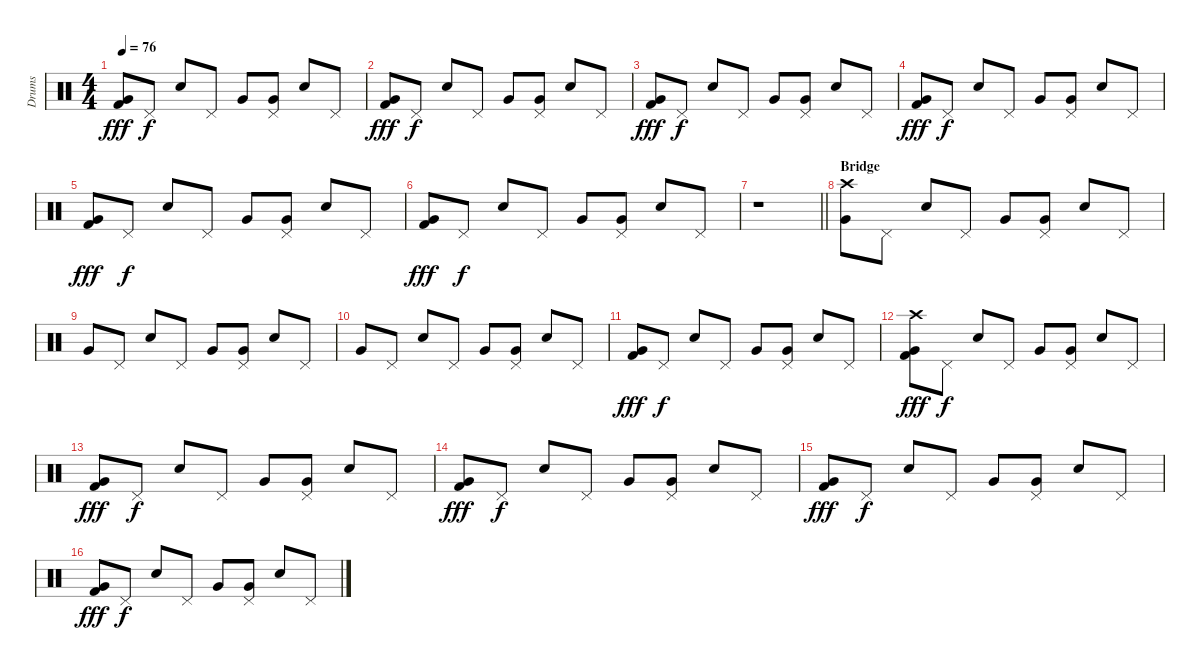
\track ("Drums" "Drums") {instrument percussion}
\staff {score}
\articulation defaults
\ts (4 4)
\tempo 76
\clef neutral
\ks c
("Kick (hit) 2" "Very Low Tom (hit)").8{dy fff} "Pedal Hi-Hat (hit)".8{dy f} "Electric Snare (hit)".8 "Pedal Hi-Hat (hit)".8 "Very Low Tom (hit)".8 ("Very Low Tom (hit)" "Pedal Hi-Hat (hit)").8 "Electric Snare (hit)".8 "Pedal Hi-Hat (hit)".8 |
("Kick (hit) 2" "Very Low Tom (hit)").8{dy fff} "Pedal Hi-Hat (hit)".8{dy f} "Electric Snare (hit)".8 "Pedal Hi-Hat (hit)".8 "Very Low Tom (hit)".8 ("Very Low Tom (hit)" "Pedal Hi-Hat (hit)").8 "Electric Snare (hit)".8 "Pedal Hi-Hat (hit)".8 |
("Kick (hit) 2" "Very Low Tom (hit)").8{dy fff} "Pedal Hi-Hat (hit)".8{dy f} "Electric Snare (hit)".8 "Pedal Hi-Hat (hit)".8 "Very Low Tom (hit)".8 ("Very Low Tom (hit)" "Pedal Hi-Hat (hit)").8 "Electric Snare (hit)".8 "Pedal Hi-Hat (hit)".8 |
("Kick (hit) 2" "Very Low Tom (hit)").8{dy fff} "Pedal Hi-Hat (hit)".8{dy f} "Electric Snare (hit)".8 "Pedal Hi-Hat (hit)".8 "Very Low Tom (hit)".8 ("Very Low Tom (hit)" "Pedal Hi-Hat (hit)").8 "Electric Snare (hit)".8 "Pedal Hi-Hat (hit)".8 |
("Kick (hit) 2" "Very Low Tom (hit)").8{dy fff} "Pedal Hi-Hat (hit)".8{dy f} "Electric Snare (hit)".8 "Pedal Hi-Hat (hit)".8 "Very Low Tom (hit)".8 ("Very Low Tom (hit)" "Pedal Hi-Hat (hit)").8 "Electric Snare (hit)".8 "Pedal Hi-Hat (hit)".8 |
("Kick (hit) 2" "Very Low Tom (hit)").8{dy fff} "Pedal Hi-Hat (hit)".8{dy f} "Electric Snare (hit)".8 "Pedal Hi-Hat (hit)".8 "Very Low Tom (hit)".8 ("Very Low Tom (hit)" "Pedal Hi-Hat (hit)").8 "Electric Snare (hit)".8 "Pedal Hi-Hat (hit)".8 |
\barLineRight lightlight
r.1 |
\section ("" "Bridge")
("Crash high (hit)" "Very Low Tom (hit)").8 "Pedal Hi-Hat (hit)".8 "Electric Snare (hit)".8 "Pedal Hi-Hat (hit)".8 "Very Low Tom (hit)".8 ("Very Low Tom (hit)" "Pedal Hi-Hat (hit)").8 "Electric Snare (hit)".8 "Pedal Hi-Hat (hit)".8 |
"Very Low Tom (hit)".8 "Pedal Hi-Hat (hit)".8 "Electric Snare (hit)".8 "Pedal Hi-Hat (hit)".8 "Very Low Tom (hit)".8 ("Very Low Tom (hit)" "Pedal Hi-Hat (hit)").8 "Electric Snare (hit)".8 "Pedal Hi-Hat (hit)".8 |
"Very Low Tom (hit)".8 "Pedal Hi-Hat (hit)".8 "Electric Snare (hit)".8 "Pedal Hi-Hat (hit)".8 "Very Low Tom (hit)".8 ("Very Low Tom (hit)" "Pedal Hi-Hat (hit)").8 "Electric Snare (hit)".8 "Pedal Hi-Hat (hit)".8 |
("Kick (hit) 2" "Very Low Tom (hit)").8{dy fff} "Pedal Hi-Hat (hit)".8{dy f} "Electric Snare (hit)".8 "Pedal Hi-Hat (hit)".8 "Very Low Tom (hit)".8 ("Very Low Tom (hit)" "Pedal Hi-Hat (hit)").8 "Electric Snare (hit)".8 "Pedal Hi-Hat (hit)".8 |
("Crash high (hit)" "Kick (hit) 2" "Very Low Tom (hit)").8{dy fff} "Pedal Hi-Hat (hit)".8{dy f} "Electric Snare (hit)".8 "Pedal Hi-Hat (hit)".8 "Very Low Tom (hit)".8 ("Very Low Tom (hit)" "Pedal Hi-Hat (hit)").8 "Electric Snare (hit)".8 "Pedal Hi-Hat (hit)".8 |
("Kick (hit) 2" "Very Low Tom (hit)").8{dy fff} "Pedal Hi-Hat (hit)".8{dy f} "Electric Snare (hit)".8 "Pedal Hi-Hat (hit)".8 "Very Low Tom (hit)".8 ("Very Low Tom (hit)" "Pedal Hi-Hat (hit)").8 "Electric Snare (hit)".8 "Pedal Hi-Hat (hit)".8 |
("Kick (hit) 2" "Very Low Tom (hit)").8{dy fff} "Pedal Hi-Hat (hit)".8{dy f} "Electric Snare (hit)".8 "Pedal Hi-Hat (hit)".8 "Very Low Tom (hit)".8 ("Very Low Tom (hit)" "Pedal Hi-Hat (hit)").8 "Electric Snare (hit)".8 "Pedal Hi-Hat (hit)".8 |
("Kick (hit) 2" "Very Low Tom (hit)").8{dy fff} "Pedal Hi-Hat (hit)".8{dy f} "Electric Snare (hit)".8 "Pedal Hi-Hat (hit)".8 "Very Low Tom (hit)".8 ("Very Low Tom (hit)" "Pedal Hi-Hat (hit)").8 "Electric Snare (hit)".8 "Pedal Hi-Hat (hit)".8 |
("Kick (hit) 2" "Very Low Tom (hit)").8{dy fff} "Pedal Hi-Hat (hit)".8{dy f} "Electric Snare (hit)".8 "Pedal Hi-Hat (hit)".8 "Very Low Tom (hit)".8 ("Very Low Tom (hit)" "Pedal Hi-Hat (hit)").8 "Electric Snare (hit)".8 "Pedal Hi-Hat (hit)".8
